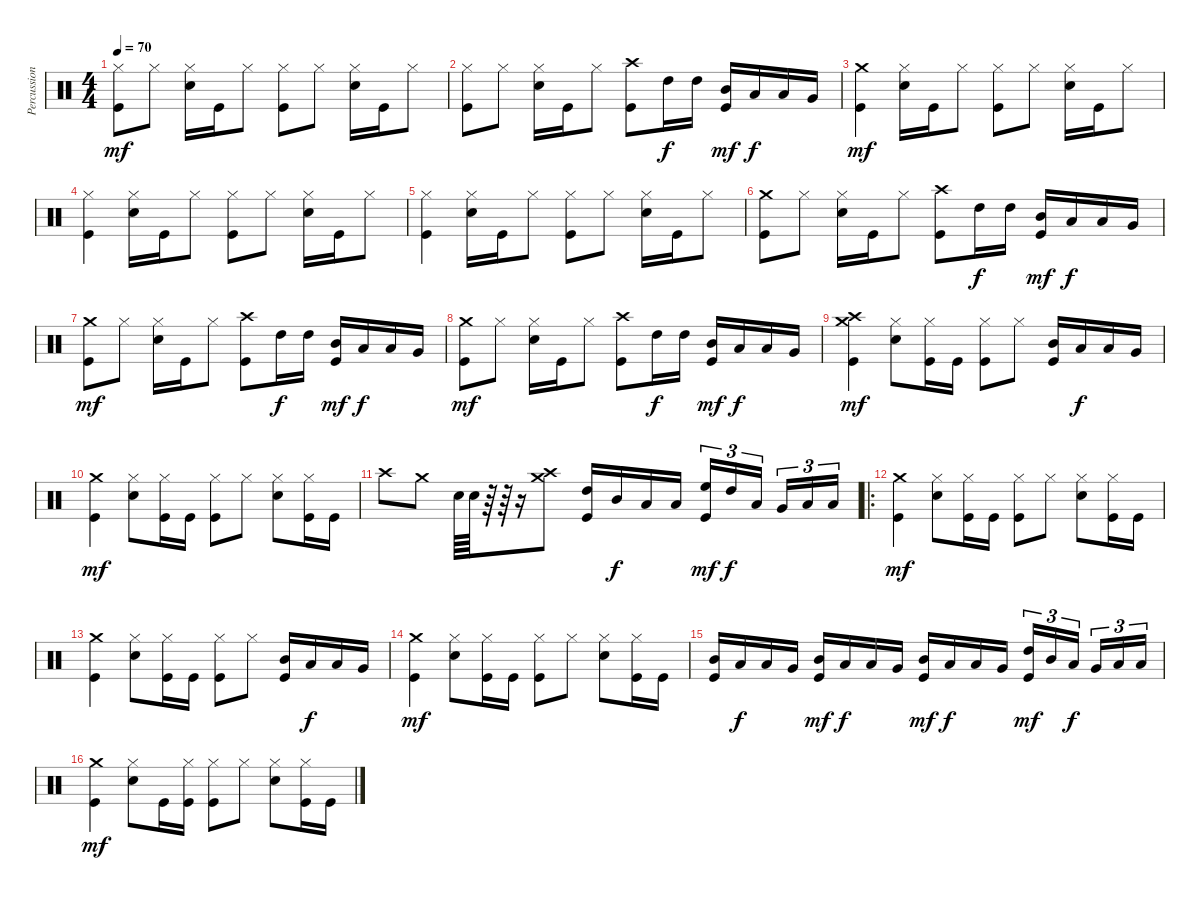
\track ("Percussion" "Percussion") {instrument percussion}
\staff {score}
\articulation defaults
\ts (4 4)
\tempo 70
\clef neutral
\ks c
("Hi-Hat (closed)" "Kick (hit)").8{dy mf} "Hi-Hat (closed)".8 ("Hi-Hat (closed)" "Snare (hit) 2").16 "Kick (hit)".16 "Hi-Hat (closed)".8 ("Hi-Hat (closed)" "Kick (hit)").8 "Hi-Hat (closed)".8 ("Hi-Hat (closed)" "Snare (hit) 2").16 "Kick (hit)".16 "Hi-Hat (closed)".8 |
("Hi-Hat (closed)" "Kick (hit)").8 "Hi-Hat (closed)".8 ("Hi-Hat (closed)" "Snare (hit) 2").16 "Kick (hit)".16 "Hi-Hat (closed)".8 ("Crash high (hit)" "Kick (hit)").8 "High Tom (hit)".16{dy f} "High Tom (hit)".16 ("Mid Tom (hit)" "Kick (hit)").16{dy mf} "Low Tom (hit)".16{dy f} "Low Tom (hit)".16 "Very Low Tom (hit)".16 |
("Crash medium (hit)" "Kick (hit)").4{dy mf} ("Hi-Hat (closed)" "Snare (hit) 2").16 "Kick (hit)".16 "Hi-Hat (closed)".8 ("Hi-Hat (closed)" "Kick (hit)").8 "Hi-Hat (closed)".8 ("Hi-Hat (closed)" "Snare (hit) 2").16 "Kick (hit)".16 "Hi-Hat (closed)".8 |
("Hi-Hat (closed)" "Kick (hit)").4 ("Hi-Hat (closed)" "Snare (hit) 2").16 "Kick (hit)".16 "Hi-Hat (closed)".8 ("Hi-Hat (closed)" "Kick (hit)").8 "Hi-Hat (closed)".8 ("Hi-Hat (closed)" "Snare (hit) 2").16 "Kick (hit)".16 "Hi-Hat (closed)".8 |
("Hi-Hat (closed)" "Kick (hit)").4 ("Hi-Hat (closed)" "Snare (hit) 2").16 "Kick (hit)".16 "Hi-Hat (closed)".8 ("Hi-Hat (closed)" "Kick (hit)").8 "Hi-Hat (closed)".8 ("Hi-Hat (closed)" "Snare (hit) 2").16 "Kick (hit)".16 "Hi-Hat (closed)".8 |
("Crash medium (hit)" "Kick (hit)").8 "Hi-Hat (closed)".8 ("Hi-Hat (closed)" "Snare (hit) 2").16 "Kick (hit)".16 "Hi-Hat (closed)".8 ("Crash high (hit)" "Kick (hit)").8 "High Tom (hit)".16{dy f} "High Tom (hit)".16 ("Mid Tom (hit)" "Kick (hit)").16{dy mf} "Low Tom (hit)".16{dy f} "Low Tom (hit)".16 "Very Low Tom (hit)".16 |
("Crash medium (hit)" "Kick (hit)").8{dy mf} "Hi-Hat (closed)".8 ("Hi-Hat (closed)" "Snare (hit) 2").16 "Kick (hit)".16 "Hi-Hat (closed)".8 ("Crash high (hit)" "Kick (hit)").8 "High Tom (hit)".16{dy f} "High Tom (hit)".16 ("Mid Tom (hit)" "Kick (hit)").16{dy mf} "Low Tom (hit)".16{dy f} "Low Tom (hit)".16 "Very Low Tom (hit)".16 |
("Crash medium (hit)" "Kick (hit)").8{dy mf} "Hi-Hat (closed)".8 ("Hi-Hat (closed)" "Snare (hit) 2").16 "Kick (hit)".16 "Hi-Hat (closed)".8 ("Crash high (hit)" "Kick (hit)").8 "High Tom (hit)".16{dy f} "High Tom (hit)".16 ("Mid Tom (hit)" "Kick (hit)").16{dy mf} "Low Tom (hit)".16{dy f} "Low Tom (hit)".16 "Very Low Tom (hit)".16 |
("Crash medium (hit)" "Crash high (hit)" "Kick (hit)").4{dy mf} ("Hi-Hat (closed)" "Snare (hit) 2").8 ("Hi-Hat (closed)" "Kick (hit)").16 "Kick (hit)".16 ("Hi-Hat (closed)" "Kick (hit)").8 "Hi-Hat (closed)".8 ("Mid Tom (hit)" "Kick (hit)").16 "Low Tom (hit)".16{dy f} "Low Tom (hit)".16 "Very Low Tom (hit)".16 |
("Crash medium (hit)" "Kick (hit)").4{dy mf} ("Hi-Hat (closed)" "Snare (hit) 2").8 ("Hi-Hat (closed)" "Kick (hit)").16 "Kick (hit)".16 ("Hi-Hat (closed)" "Kick (hit)").8 "Hi-Hat (closed)".8 ("Hi-Hat (closed)" "Snare (hit) 2").8 ("Hi-Hat (closed)" "Kick (hit)").16 "Kick (hit)".16 |
"Crash high (hit)".8 "Crash medium (hit)".8 "Snare (hit) 2".64 "Snare (hit) 2".64 r.64 r.64 r.16 ("Crash high (hit)" "Crash medium (hit)").8 ("High Tom (hit)" "Kick (hit)").16 "Mid Tom (hit)".16{dy f} "Low Tom (hit)".16 "Low Floor Tom (hit)".16 ("High Floor Tom (hit)" "Kick (hit)").16{tu (3 2) dy mf} "High Tom (hit)".16{tu (3 2) dy f} "Low Tom (hit)".16{tu (3 2)} "Very Low Tom (hit)".16{tu (3 2)} "Low Floor Tom (hit)".16{tu (3 2)} "Low Floor Tom (hit)".16{tu (3 2)} |
\ro
("Crash medium (hit)" "Kick (hit)").4{dy mf} ("Hi-Hat (closed)" "Snare (hit) 2").8 ("Hi-Hat (closed)" "Kick (hit)").16 "Kick (hit)".16 ("Hi-Hat (closed)" "Kick (hit)").8 "Hi-Hat (closed)".8 ("Hi-Hat (closed)" "Snare (hit) 2").8 ("Hi-Hat (closed)" "Kick (hit)").16 "Kick (hit)".16 |
("Crash medium (hit)" "Kick (hit)").4 ("Hi-Hat (closed)" "Snare (hit) 2").8 ("Hi-Hat (closed)" "Kick (hit)").16 "Kick (hit)".16 ("Hi-Hat (closed)" "Kick (hit)").8 "Hi-Hat (closed)".8 ("Mid Tom (hit)" "Kick (hit)").16 "Low Tom (hit)".16{dy f} "Low Tom (hit)".16 "Very Low Tom (hit)".16 |
("Crash medium (hit)" "Kick (hit)").4{dy mf} ("Hi-Hat (closed)" "Snare (hit) 2").8 ("Hi-Hat (closed)" "Kick (hit)").16 "Kick (hit)".16 ("Hi-Hat (closed)" "Kick (hit)").8 "Hi-Hat (closed)".8 ("Hi-Hat (closed)" "Snare (hit) 2").8 ("Hi-Hat (closed)" "Kick (hit)").16 "Kick (hit)".16 |
("Mid Tom (hit)" "Kick (hit)").16 "Low Tom (hit)".16{dy f} "Low Tom (hit)".16 "Very Low Tom (hit)".16 ("Mid Tom (hit)" "Kick (hit)").16{dy mf} "Low Tom (hit)".16{dy f} "Low Tom (hit)".16 "Very Low Tom (hit)".16 ("Mid Tom (hit)" "Kick (hit)").16{dy mf} "Low Tom (hit)".16{dy f} "Low Tom (hit)".16 "Very Low Tom (hit)".16 ("High Tom (hit)" "Kick (hit)").16{tu (3 2) dy mf} "Mid Tom (hit)".16{tu (3 2)} "Low Tom (hit)".16{tu (3 2) dy f} "Very Low Tom (hit)".16{tu (3 2)} "Low Floor Tom (hit)".16{tu (3 2)} "Low Floor Tom (hit)".16{tu (3 2)} |
("Crash medium (hit)" "Kick (hit)").4{dy mf} ("Hi-Hat (closed)" "Snare (hit) 2").8 "Kick (hit)".16 ("Hi-Hat (closed)" "Kick (hit)").16 ("Hi-Hat (closed)" "Kick (hit)").8 "Hi-Hat (closed)".8 ("Hi-Hat (closed)" "Snare (hit) 2").8 ("Hi-Hat (closed)" "Kick (hit)").16 "Kick (hit)".16
